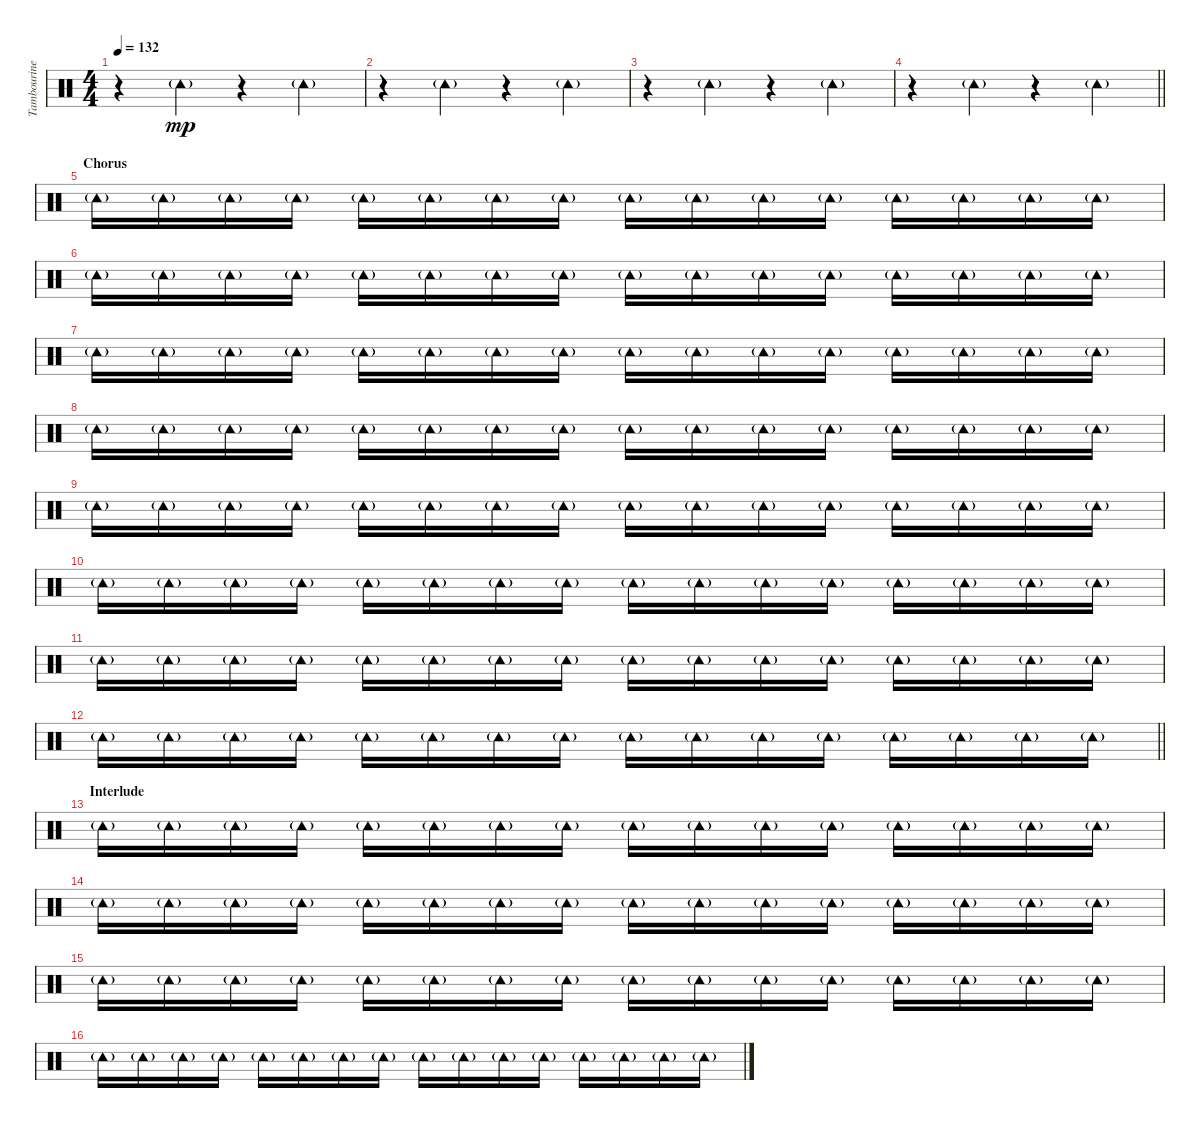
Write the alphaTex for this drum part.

\track ("Tambourine" "Tambourine") {instrument percussion}
\staff {score}
\articulation defaults
\ts (4 4)
\tempo 132
\clef neutral
\ks c
r.4{dy mp} "Tambourine (hit)"{g}.4 r.4 "Tambourine (hit)"{g}.4 |
r.4 "Tambourine (hit)"{g}.4 r.4 "Tambourine (hit)"{g}.4 |
r.4 "Tambourine (hit)"{g}.4 r.4 "Tambourine (hit)"{g}.4 |
\barLineRight lightlight
r.4 "Tambourine (hit)"{g}.4 r.4 "Tambourine (hit)"{g}.4 |
\section ("" "Chorus")
"Tambourine (hit)"{g}.16 "Tambourine (hit)"{g}.16 "Tambourine (hit)"{g}.16 "Tambourine (hit)"{g}.16 "Tambourine (hit)"{g}.16 "Tambourine (hit)"{g}.16 "Tambourine (hit)"{g}.16 "Tambourine (hit)"{g}.16 "Tambourine (hit)"{g}.16 "Tambourine (hit)"{g}.16 "Tambourine (hit)"{g}.16 "Tambourine (hit)"{g}.16 "Tambourine (hit)"{g}.16 "Tambourine (hit)"{g}.16 "Tambourine (hit)"{g}.16 "Tambourine (hit)"{g}.16 |
"Tambourine (hit)"{g}.16 "Tambourine (hit)"{g}.16 "Tambourine (hit)"{g}.16 "Tambourine (hit)"{g}.16 "Tambourine (hit)"{g}.16 "Tambourine (hit)"{g}.16 "Tambourine (hit)"{g}.16 "Tambourine (hit)"{g}.16 "Tambourine (hit)"{g}.16 "Tambourine (hit)"{g}.16 "Tambourine (hit)"{g}.16 "Tambourine (hit)"{g}.16 "Tambourine (hit)"{g}.16 "Tambourine (hit)"{g}.16 "Tambourine (hit)"{g}.16 "Tambourine (hit)"{g}.16 |
"Tambourine (hit)"{g}.16 "Tambourine (hit)"{g}.16 "Tambourine (hit)"{g}.16 "Tambourine (hit)"{g}.16 "Tambourine (hit)"{g}.16 "Tambourine (hit)"{g}.16 "Tambourine (hit)"{g}.16 "Tambourine (hit)"{g}.16 "Tambourine (hit)"{g}.16 "Tambourine (hit)"{g}.16 "Tambourine (hit)"{g}.16 "Tambourine (hit)"{g}.16 "Tambourine (hit)"{g}.16 "Tambourine (hit)"{g}.16 "Tambourine (hit)"{g}.16 "Tambourine (hit)"{g}.16 |
"Tambourine (hit)"{g}.16 "Tambourine (hit)"{g}.16 "Tambourine (hit)"{g}.16 "Tambourine (hit)"{g}.16 "Tambourine (hit)"{g}.16 "Tambourine (hit)"{g}.16 "Tambourine (hit)"{g}.16 "Tambourine (hit)"{g}.16 "Tambourine (hit)"{g}.16 "Tambourine (hit)"{g}.16 "Tambourine (hit)"{g}.16 "Tambourine (hit)"{g}.16 "Tambourine (hit)"{g}.16 "Tambourine (hit)"{g}.16 "Tambourine (hit)"{g}.16 "Tambourine (hit)"{g}.16 |
"Tambourine (hit)"{g}.16 "Tambourine (hit)"{g}.16 "Tambourine (hit)"{g}.16 "Tambourine (hit)"{g}.16 "Tambourine (hit)"{g}.16 "Tambourine (hit)"{g}.16 "Tambourine (hit)"{g}.16 "Tambourine (hit)"{g}.16 "Tambourine (hit)"{g}.16 "Tambourine (hit)"{g}.16 "Tambourine (hit)"{g}.16 "Tambourine (hit)"{g}.16 "Tambourine (hit)"{g}.16 "Tambourine (hit)"{g}.16 "Tambourine (hit)"{g}.16 "Tambourine (hit)"{g}.16 |
"Tambourine (hit)"{g}.16 "Tambourine (hit)"{g}.16 "Tambourine (hit)"{g}.16 "Tambourine (hit)"{g}.16 "Tambourine (hit)"{g}.16 "Tambourine (hit)"{g}.16 "Tambourine (hit)"{g}.16 "Tambourine (hit)"{g}.16 "Tambourine (hit)"{g}.16 "Tambourine (hit)"{g}.16 "Tambourine (hit)"{g}.16 "Tambourine (hit)"{g}.16 "Tambourine (hit)"{g}.16 "Tambourine (hit)"{g}.16 "Tambourine (hit)"{g}.16 "Tambourine (hit)"{g}.16 |
"Tambourine (hit)"{g}.16 "Tambourine (hit)"{g}.16 "Tambourine (hit)"{g}.16 "Tambourine (hit)"{g}.16 "Tambourine (hit)"{g}.16 "Tambourine (hit)"{g}.16 "Tambourine (hit)"{g}.16 "Tambourine (hit)"{g}.16 "Tambourine (hit)"{g}.16 "Tambourine (hit)"{g}.16 "Tambourine (hit)"{g}.16 "Tambourine (hit)"{g}.16 "Tambourine (hit)"{g}.16 "Tambourine (hit)"{g}.16 "Tambourine (hit)"{g}.16 "Tambourine (hit)"{g}.16 |
\barLineRight lightlight "Tambourine (hit)"{g}.16 "Tambourine (hit)"{g}.16 "Tambourine (hit)"{g}.16 "Tambourine (hit)"{g}.16 "Tambourine (hit)"{g}.16 "Tambourine (hit)"{g}.16 "Tambourine (hit)"{g}.16 "Tambourine (hit)"{g}.16 "Tambourine (hit)"{g}.16 "Tambourine (hit)"{g}.16 "Tambourine (hit)"{g}.16 "Tambourine (hit)"{g}.16 "Tambourine (hit)"{g}.16 "Tambourine (hit)"{g}.16 "Tambourine (hit)"{g}.16 "Tambourine (hit)"{g}.16
|
\section ("" "Interlude")
"Tambourine (hit)"{g}.16 "Tambourine (hit)"{g}.16 "Tambourine (hit)"{g}.16 "Tambourine (hit)"{g}.16 "Tambourine (hit)"{g}.16 "Tambourine (hit)"{g}.16 "Tambourine (hit)"{g}.16 "Tambourine (hit)"{g}.16 "Tambourine (hit)"{g}.16 "Tambourine (hit)"{g}.16 "Tambourine (hit)"{g}.16 "Tambourine (hit)"{g}.16 "Tambourine (hit)"{g}.16 "Tambourine (hit)"{g}.16 "Tambourine (hit)"{g}.16 "Tambourine (hit)"{g}.16 |
"Tambourine (hit)"{g}.16 "Tambourine (hit)"{g}.16 "Tambourine (hit)"{g}.16 "Tambourine (hit)"{g}.16 "Tambourine (hit)"{g}.16 "Tambourine (hit)"{g}.16 "Tambourine (hit)"{g}.16 "Tambourine (hit)"{g}.16 "Tambourine (hit)"{g}.16 "Tambourine (hit)"{g}.16 "Tambourine (hit)"{g}.16 "Tambourine (hit)"{g}.16 "Tambourine (hit)"{g}.16 "Tambourine (hit)"{g}.16 "Tambourine (hit)"{g}.16 "Tambourine (hit)"{g}.16 |
"Tambourine (hit)"{g}.16 "Tambourine (hit)"{g}.16 "Tambourine (hit)"{g}.16 "Tambourine (hit)"{g}.16 "Tambourine (hit)"{g}.16 "Tambourine (hit)"{g}.16 "Tambourine (hit)"{g}.16 "Tambourine (hit)"{g}.16 "Tambourine (hit)"{g}.16 "Tambourine (hit)"{g}.16 "Tambourine (hit)"{g}.16 "Tambourine (hit)"{g}.16 "Tambourine (hit)"{g}.16 "Tambourine (hit)"{g}.16 "Tambourine (hit)"{g}.16 "Tambourine (hit)"{g}.16 |
"Tambourine (hit)"{g}.16 "Tambourine (hit)"{g}.16 "Tambourine (hit)"{g}.16 "Tambourine (hit)"{g}.16 "Tambourine (hit)"{g}.16 "Tambourine (hit)"{g}.16 "Tambourine (hit)"{g}.16 "Tambourine (hit)"{g}.16 "Tambourine (hit)"{g}.16 "Tambourine (hit)"{g}.16 "Tambourine (hit)"{g}.16 "Tambourine (hit)"{g}.16 "Tambourine (hit)"{g}.16 "Tambourine (hit)"{g}.16 "Tambourine (hit)"{g}.16 "Tambourine (hit)"{g}.16
